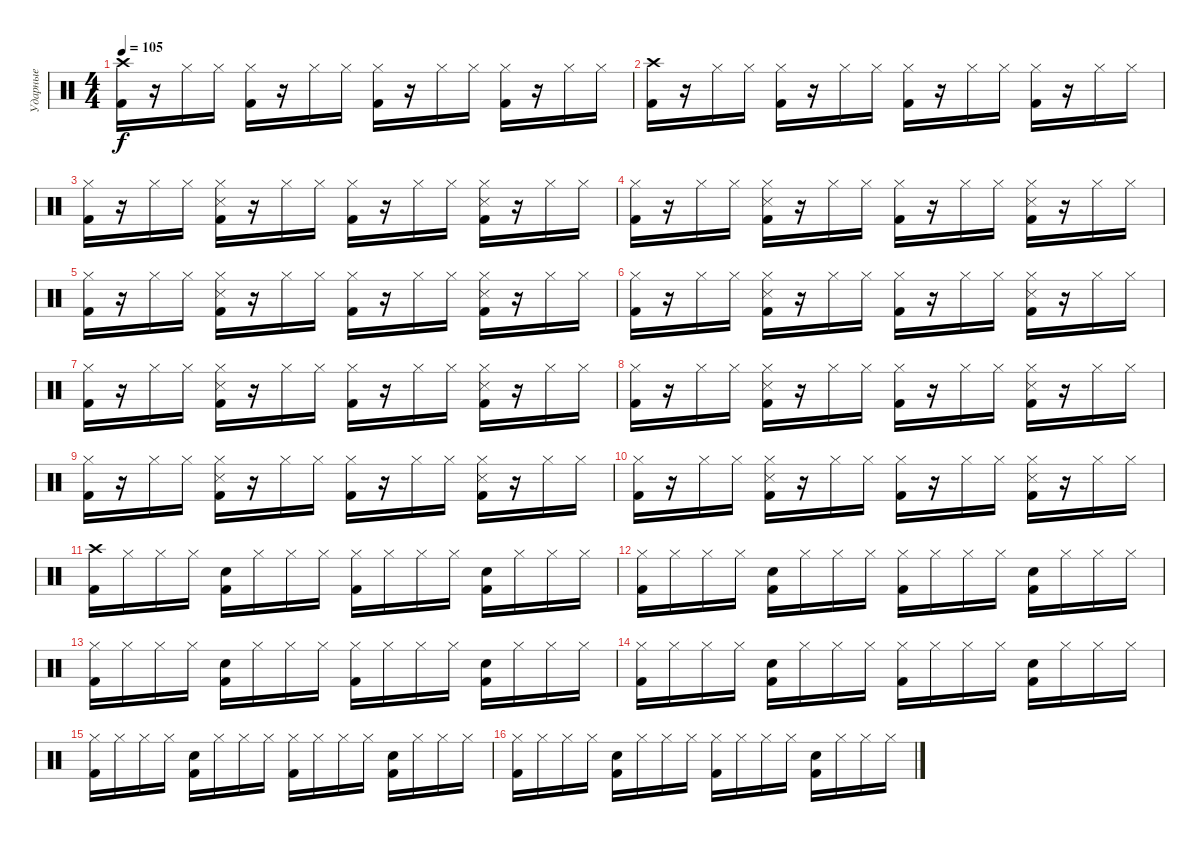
\track ("Ударные" "Ударные") {instrument percussion}
\staff {score}
\articulation defaults
\ts (4 4)
\tempo 105
\clef neutral
\ks c
("Crash high (hit)" "Kick (hit) 2").16{dy f} r.16 "Hi-Hat (closed)".16 "Hi-Hat (closed)".16 ("Hi-Hat (closed)" "Kick (hit) 2").16 r.16 "Hi-Hat (closed)".16 "Hi-Hat (closed)".16 ("Hi-Hat (closed)" "Kick (hit) 2").16 r.16 "Hi-Hat (closed)".16 "Hi-Hat (closed)".16 ("Hi-Hat (closed)" "Kick (hit) 2").16 r.16 "Hi-Hat (closed)".16 "Hi-Hat (closed)".16 |
("Crash high (hit)" "Kick (hit) 2").16 r.16 "Hi-Hat (closed)".16 "Hi-Hat (closed)".16 ("Hi-Hat (closed)" "Kick (hit) 2").16 r.16 "Hi-Hat (closed)".16 "Hi-Hat (closed)".16 ("Hi-Hat (closed)" "Kick (hit) 2").16 r.16 "Hi-Hat (closed)".16 "Hi-Hat (closed)".16 ("Hi-Hat (closed)" "Kick (hit) 2").16 r.16 "Hi-Hat (closed)".16 "Hi-Hat (closed)".16 |
("Hi-Hat (closed)" "Kick (hit) 2").16 r.16 "Hi-Hat (closed)".16 "Hi-Hat (closed)".16 ("Hi-Hat (closed)" "Kick (hit) 2" "Snare (side stick) 3").16 r.16 "Hi-Hat (closed)".16 "Hi-Hat (closed)".16 ("Hi-Hat (closed)" "Kick (hit) 2").16 r.16 "Hi-Hat (closed)".16 "Hi-Hat (closed)".16 ("Hi-Hat (closed)" "Kick (hit) 2" "Snare (side stick) 3").16 r.16 "Hi-Hat (closed)".16 "Hi-Hat (closed)".16 |
("Hi-Hat (closed)" "Kick (hit) 2").16 r.16 "Hi-Hat (closed)".16 "Hi-Hat (closed)".16 ("Hi-Hat (closed)" "Kick (hit) 2" "Snare (side stick) 3").16 r.16 "Hi-Hat (closed)".16 "Hi-Hat (closed)".16 ("Hi-Hat (closed)" "Kick (hit) 2").16 r.16 "Hi-Hat (closed)".16 "Hi-Hat (closed)".16 ("Hi-Hat (closed)" "Kick (hit) 2" "Snare (side stick) 3").16 r.16 "Hi-Hat (closed)".16 "Hi-Hat (closed)".16 |
("Hi-Hat (closed)" "Kick (hit) 2").16 r.16 "Hi-Hat (closed)".16 "Hi-Hat (closed)".16 ("Hi-Hat (closed)" "Kick (hit) 2" "Snare (side stick) 3").16 r.16 "Hi-Hat (closed)".16 "Hi-Hat (closed)".16 ("Hi-Hat (closed)" "Kick (hit) 2").16 r.16 "Hi-Hat (closed)".16 "Hi-Hat (closed)".16 ("Hi-Hat (closed)" "Kick (hit) 2" "Snare (side stick) 3").16 r.16 "Hi-Hat (closed)".16 "Hi-Hat (closed)".16 |
("Hi-Hat (closed)" "Kick (hit) 2").16 r.16 "Hi-Hat (closed)".16 "Hi-Hat (closed)".16 ("Hi-Hat (closed)" "Kick (hit) 2" "Snare (side stick) 3").16 r.16 "Hi-Hat (closed)".16 "Hi-Hat (closed)".16 ("Hi-Hat (closed)" "Kick (hit) 2").16 r.16 "Hi-Hat (closed)".16 "Hi-Hat (closed)".16 ("Hi-Hat (closed)" "Kick (hit) 2" "Snare (side stick) 3").16 r.16 "Hi-Hat (closed)".16 "Hi-Hat (closed)".16 |
("Hi-Hat (closed)" "Kick (hit) 2").16 r.16 "Hi-Hat (closed)".16 "Hi-Hat (closed)".16 ("Hi-Hat (closed)" "Kick (hit) 2" "Snare (side stick) 3").16 r.16 "Hi-Hat (closed)".16 "Hi-Hat (closed)".16 ("Hi-Hat (closed)" "Kick (hit) 2").16 r.16 "Hi-Hat (closed)".16 "Hi-Hat (closed)".16 ("Hi-Hat (closed)" "Kick (hit) 2" "Snare (side stick) 3").16 r.16 "Hi-Hat (closed)".16 "Hi-Hat (closed)".16 |
("Hi-Hat (closed)" "Kick (hit) 2").16 r.16 "Hi-Hat (closed)".16 "Hi-Hat (closed)".16 ("Hi-Hat (closed)" "Kick (hit) 2" "Snare (side stick) 3").16 r.16 "Hi-Hat (closed)".16 "Hi-Hat (closed)".16 ("Hi-Hat (closed)" "Kick (hit) 2").16 r.16 "Hi-Hat (closed)".16 "Hi-Hat (closed)".16 ("Hi-Hat (closed)" "Kick (hit) 2" "Snare (side stick) 3").16 r.16 "Hi-Hat (closed)".16 "Hi-Hat (closed)".16 |
("Hi-Hat (closed)" "Kick (hit) 2").16 r.16 "Hi-Hat (closed)".16 "Hi-Hat (closed)".16 ("Hi-Hat (closed)" "Kick (hit) 2" "Snare (side stick) 3").16 r.16 "Hi-Hat (closed)".16 "Hi-Hat (closed)".16 ("Hi-Hat (closed)" "Kick (hit) 2").16 r.16 "Hi-Hat (closed)".16 "Hi-Hat (closed)".16 ("Hi-Hat (closed)" "Kick (hit) 2" "Snare (side stick) 3").16 r.16 "Hi-Hat (closed)".16 "Hi-Hat (closed)".16 |
("Hi-Hat (closed)" "Kick (hit) 2").16 r.16 "Hi-Hat (closed)".16 "Hi-Hat (closed)".16 ("Hi-Hat (closed)" "Kick (hit) 2" "Snare (side stick) 3").16 r.16 "Hi-Hat (closed)".16 "Hi-Hat (closed)".16 ("Hi-Hat (closed)" "Kick (hit) 2").16 r.16 "Hi-Hat (closed)".16 "Hi-Hat (closed)".16 ("Hi-Hat (closed)" "Kick (hit) 2" "Snare (side stick) 3").16 r.16 "Hi-Hat (closed)".16 "Hi-Hat (closed)".16 |
("Crash high (hit)" "Kick (hit) 2").16 "Hi-Hat (closed)".16 "Hi-Hat (closed)".16 "Hi-Hat (closed)".16 ("Kick (hit) 2" "Electric Snare (hit)").16 "Hi-Hat (closed)".16 "Hi-Hat (closed)".16 "Hi-Hat (closed)".16 ("Hi-Hat (closed)" "Kick (hit) 2").16 "Hi-Hat (closed)".16 "Hi-Hat (closed)".16 "Hi-Hat (closed)".16 ("Kick (hit) 2" "Electric Snare (hit)").16 "Hi-Hat (closed)".16 "Hi-Hat (closed)".16 "Hi-Hat (closed)".16 |
("Hi-Hat (closed)" "Kick (hit) 2").16 "Hi-Hat (closed)".16 "Hi-Hat (closed)".16 "Hi-Hat (closed)".16 ("Kick (hit) 2" "Electric Snare (hit)").16 "Hi-Hat (closed)".16 "Hi-Hat (closed)".16 "Hi-Hat (closed)".16 ("Hi-Hat (closed)" "Kick (hit) 2").16 "Hi-Hat (closed)".16 "Hi-Hat (closed)".16 "Hi-Hat (closed)".16 ("Kick (hit) 2" "Electric Snare (hit)").16 "Hi-Hat (closed)".16 "Hi-Hat (closed)".16 "Hi-Hat (closed)".16 |
("Hi-Hat (closed)" "Kick (hit) 2").16 "Hi-Hat (closed)".16 "Hi-Hat (closed)".16 "Hi-Hat (closed)".16 ("Kick (hit) 2" "Electric Snare (hit)").16 "Hi-Hat (closed)".16 "Hi-Hat (closed)".16 "Hi-Hat (closed)".16 ("Hi-Hat (closed)" "Kick (hit) 2").16 "Hi-Hat (closed)".16 "Hi-Hat (closed)".16 "Hi-Hat (closed)".16 ("Kick (hit) 2" "Electric Snare (hit)").16 "Hi-Hat (closed)".16 "Hi-Hat (closed)".16 "Hi-Hat (closed)".16 |
("Hi-Hat (closed)" "Kick (hit) 2").16 "Hi-Hat (closed)".16 "Hi-Hat (closed)".16 "Hi-Hat (closed)".16 ("Kick (hit) 2" "Electric Snare (hit)").16 "Hi-Hat (closed)".16 "Hi-Hat (closed)".16 "Hi-Hat (closed)".16 ("Hi-Hat (closed)" "Kick (hit) 2").16 "Hi-Hat (closed)".16 "Hi-Hat (closed)".16 "Hi-Hat (closed)".16 ("Kick (hit) 2" "Electric Snare (hit)").16 "Hi-Hat (closed)".16 "Hi-Hat (closed)".16 "Hi-Hat (closed)".16 |
("Hi-Hat (closed)" "Kick (hit) 2").16 "Hi-Hat (closed)".16 "Hi-Hat (closed)".16 "Hi-Hat (closed)".16 ("Kick (hit) 2" "Electric Snare (hit)").16 "Hi-Hat (closed)".16 "Hi-Hat (closed)".16 "Hi-Hat (closed)".16 ("Hi-Hat (closed)" "Kick (hit) 2").16 "Hi-Hat (closed)".16 "Hi-Hat (closed)".16 "Hi-Hat (closed)".16 ("Kick (hit) 2" "Electric Snare (hit)").16 "Hi-Hat (closed)".16 "Hi-Hat (closed)".16 "Hi-Hat (closed)".16 |
("Hi-Hat (closed)" "Kick (hit) 2").16 "Hi-Hat (closed)".16 "Hi-Hat (closed)".16 "Hi-Hat (closed)".16 ("Kick (hit) 2" "Electric Snare (hit)").16 "Hi-Hat (closed)".16 "Hi-Hat (closed)".16 "Hi-Hat (closed)".16 ("Hi-Hat (closed)" "Kick (hit) 2").16 "Hi-Hat (closed)".16 "Hi-Hat (closed)".16 "Hi-Hat (closed)".16 ("Kick (hit) 2" "Electric Snare (hit)").16 "Hi-Hat (closed)".16 "Hi-Hat (closed)".16 "Hi-Hat (closed)".16
